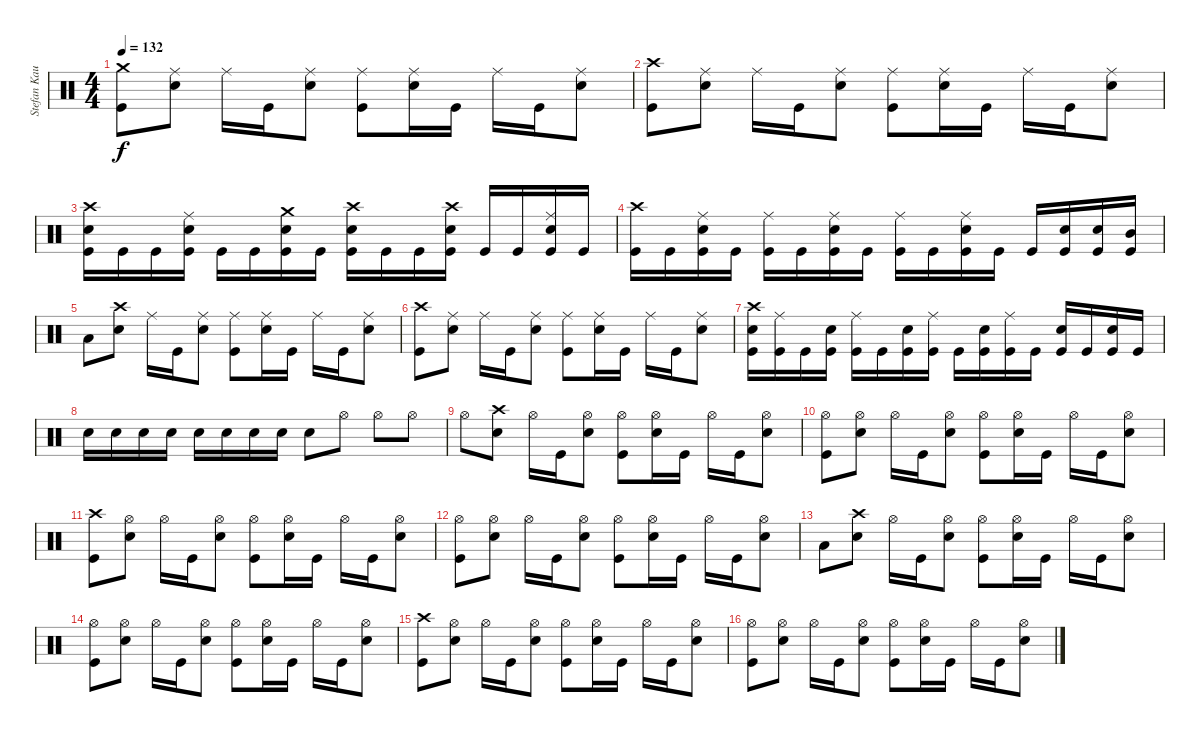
\track ("Stefan Kaufmann" "Stefan Kau") {instrument percussion}
\staff {score}
\articulation defaults
\ts (4 4)
\tempo 132
\clef neutral
\ks c
("Crash medium (hit)" "Kick (hit)").8{dy f} ("Ride (middle)" "Snare (hit) 2").8 "Ride (middle)".16 "Kick (hit)".16 ("Ride (middle)" "Snare (hit) 2").8 ("Ride (middle)" "Kick (hit)").8 ("Ride (middle)" "Snare (hit) 2").16 "Kick (hit)".16 "Ride (middle)".16 "Kick (hit)".16 ("Ride (middle)" "Snare (hit) 2").8 |
("Crash high (hit)" "Kick (hit)").8 ("Ride (middle)" "Snare (hit) 2").8 "Ride (middle)".16 "Kick (hit)".16 ("Ride (middle)" "Snare (hit) 2").8 ("Ride (middle)" "Kick (hit)").8 ("Ride (middle)" "Snare (hit) 2").16 "Kick (hit)".16 "Ride (middle)".16 "Kick (hit)".16 ("Ride (middle)" "Snare (hit) 2").8 |
("Crash high (hit)" "Snare (hit) 2" "Kick (hit)").16 "Kick (hit)".16 "Kick (hit)".16 ("Ride (middle)" "Snare (hit) 2" "Kick (hit)").16 "Kick (hit)".16 "Kick (hit)".16 ("Crash medium (hit)" "Snare (hit) 2" "Kick (hit)").16 "Kick (hit)".16 ("Crash high (hit)" "Snare (hit) 2" "Kick (hit)").16 "Kick (hit)".16 "Kick (hit)".16 ("Crash high (hit)" "Snare (hit) 2" "Kick (hit)").16 "Kick (hit)".16 "Kick (hit)".16 ("Ride (middle)" "Snare (hit) 2" "Kick (hit)").16 "Kick (hit)".16 |
("Crash high (hit)" "Kick (hit)").16 "Kick (hit)".16 ("Ride (middle)" "Snare (hit) 2" "Kick (hit)").16 "Kick (hit)".16 ("Ride (middle)" "Kick (hit)").16 "Kick (hit)".16 ("Ride (middle)" "Snare (hit) 2" "Kick (hit)").16 "Kick (hit)".16 ("Ride (middle)" "Kick (hit)").16 "Kick (hit)".16 ("Ride (middle)" "Snare (hit) 2" "Kick (hit)").16 "Kick (hit)".16 "Kick (hit)".16 ("Snare (hit) 2" "Kick (hit)").16 ("Snare (hit) 2" "Kick (hit)").16 ("Mid Tom (hit)" "Kick (hit)").16 |
"Low Floor Tom (hit)".8 ("Crash high (hit)" "Snare (hit) 2").8 "Ride (middle)".16 "Kick (hit)".16 ("Ride (middle)" "Snare (hit) 2").8 ("Ride (middle)" "Kick (hit)").8 ("Ride (middle)" "Snare (hit) 2").16 "Kick (hit)".16 "Ride (middle)".16 "Kick (hit)".16 ("Ride (middle)" "Snare (hit) 2").8 |
("Crash high (hit)" "Kick (hit)").8 ("Ride (middle)" "Snare (hit) 2").8 "Ride (middle)".16 "Kick (hit)".16 ("Ride (middle)" "Snare (hit) 2").8 ("Ride (middle)" "Kick (hit)").8 ("Ride (middle)" "Snare (hit) 2").16 "Kick (hit)".16 "Ride (middle)".16 "Kick (hit)".16 ("Ride (middle)" "Snare (hit) 2").8 |
("Crash high (hit)" "Snare (hit) 2" "Kick (hit)").16 ("Ride (middle)" "Kick (hit)").16 "Kick (hit)".16 ("Snare (hit) 2" "Kick (hit)").16 ("Ride (middle)" "Kick (hit)").16 "Kick (hit)".16 ("Snare (hit) 2" "Kick (hit)").16 ("Ride (middle)" "Kick (hit)").16 "Kick (hit)".16 ("Snare (hit) 2" "Kick (hit)").16 ("Ride (middle)" "Kick (hit)").16 "Kick (hit)".16 ("Snare (hit) 2" "Kick (hit)").16 "Kick (hit)".16 ("Snare (hit) 2" "Kick (hit)").16 "Kick (hit)".16 |
"Snare (hit) 2".16 "Snare (hit) 2".16 "Snare (hit) 2".16 "Snare (hit) 2".16 "Snare (hit) 2".16 "Snare (hit) 2".16 "Snare (hit) 2".16 "Snare (hit) 2".16 "Snare (hit) 2".8 "Hi-Hat (open)".8 "Hi-Hat (open)".8 "Hi-Hat (open)".8 |
"Hi-Hat (open)".8 ("Crash high (hit)" "Snare (hit) 2").8 "Hi-Hat (open)".16 "Kick (hit)".16 ("Hi-Hat (open)" "Snare (hit) 2").8 ("Hi-Hat (open)" "Kick (hit)").8 ("Hi-Hat (open)" "Snare (hit) 2").16 "Kick (hit)".16 "Hi-Hat (open)".16 "Kick (hit)".16 ("Hi-Hat (open)" "Snare (hit) 2").8 |
("Hi-Hat (open)" "Kick (hit)").8 ("Hi-Hat (open)" "Snare (hit) 2").8 "Hi-Hat (open)".16 "Kick (hit)".16 ("Hi-Hat (open)" "Snare (hit) 2").8 ("Hi-Hat (open)" "Kick (hit)").8 ("Hi-Hat (open)" "Snare (hit) 2").16 "Kick (hit)".16 "Hi-Hat (open)".16 "Kick (hit)".16 ("Hi-Hat (open)" "Snare (hit) 2").8 |
("Crash high (hit)" "Kick (hit)").8 ("Hi-Hat (open)" "Snare (hit) 2").8 "Hi-Hat (open)".16 "Kick (hit)".16 ("Hi-Hat (open)" "Snare (hit) 2").8 ("Hi-Hat (open)" "Kick (hit)").8 ("Hi-Hat (open)" "Snare (hit) 2").16 "Kick (hit)".16 "Hi-Hat (open)".16 "Kick (hit)".16 ("Hi-Hat (open)" "Snare (hit) 2").8 |
("Hi-Hat (open)" "Kick (hit)").8 ("Hi-Hat (open)" "Snare (hit) 2").8 "Hi-Hat (open)".16 "Kick (hit)".16 ("Hi-Hat (open)" "Snare (hit) 2").8 ("Hi-Hat (open)" "Kick (hit)").8 ("Hi-Hat (open)" "Snare (hit) 2").16 "Kick (hit)".16 "Hi-Hat (open)".16 "Kick (hit)".16 ("Hi-Hat (open)" "Snare (hit) 2").8 |
"Low Tom (hit)".8 ("Crash high (hit)" "Snare (hit) 2").8 "Hi-Hat (open)".16 "Kick (hit)".16 ("Hi-Hat (open)" "Snare (hit) 2").8 ("Hi-Hat (open)" "Kick (hit)").8 ("Hi-Hat (open)" "Snare (hit) 2").16 "Kick (hit)".16 "Hi-Hat (open)".16 "Kick (hit)".16 ("Hi-Hat (open)" "Snare (hit) 2").8 |
("Hi-Hat (open)" "Kick (hit)").8 ("Hi-Hat (open)" "Snare (hit) 2").8 "Hi-Hat (open)".16 "Kick (hit)".16 ("Hi-Hat (open)" "Snare (hit) 2").8 ("Hi-Hat (open)" "Kick (hit)").8 ("Hi-Hat (open)" "Snare (hit) 2").16 "Kick (hit)".16 "Hi-Hat (open)".16 "Kick (hit)".16 ("Hi-Hat (open)" "Snare (hit) 2").8 |
("Crash high (hit)" "Kick (hit)").8 ("Hi-Hat (open)" "Snare (hit) 2").8 "Hi-Hat (open)".16 "Kick (hit)".16 ("Hi-Hat (open)" "Snare (hit) 2").8 ("Hi-Hat (open)" "Kick (hit)").8 ("Hi-Hat (open)" "Snare (hit) 2").16 "Kick (hit)".16 "Hi-Hat (open)".16 "Kick (hit)".16 ("Hi-Hat (open)" "Snare (hit) 2").8 |
("Hi-Hat (open)" "Kick (hit)").8 ("Hi-Hat (open)" "Snare (hit) 2").8 "Hi-Hat (open)".16 "Kick (hit)".16 ("Hi-Hat (open)" "Snare (hit) 2").8 ("Hi-Hat (open)" "Kick (hit)").8 ("Hi-Hat (open)" "Snare (hit) 2").16 "Kick (hit)".16 "Hi-Hat (open)".16 "Kick (hit)".16 ("Hi-Hat (open)" "Snare (hit) 2").8
